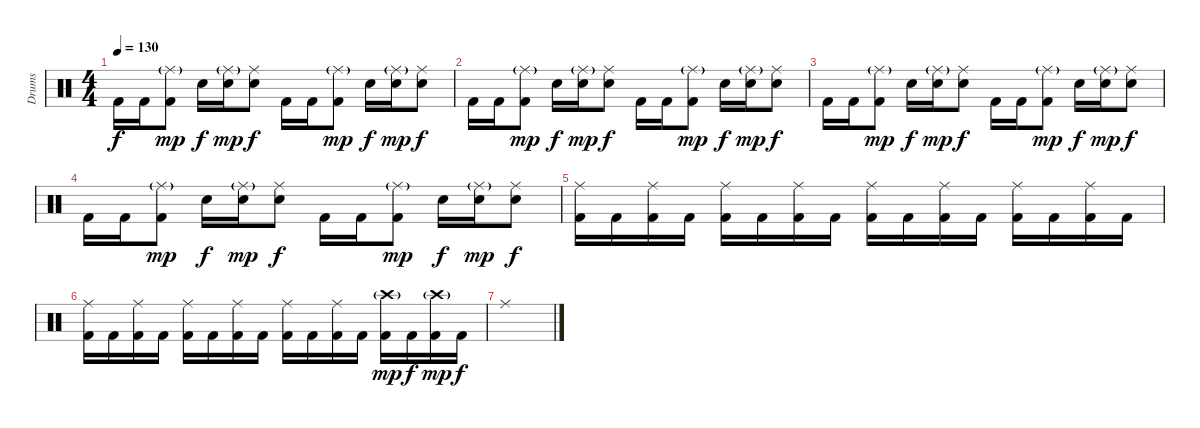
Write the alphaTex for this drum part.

\track ("Drums" "Drums") {instrument percussion}
\staff {score}
\articulation defaults
\ts (4 4)
\tempo 130
\clef neutral
\ks c "Kick (hit) 2".16{dy f} "Kick (hit) 2".16
("Ride (middle)"{g} "Kick (hit) 2").8{dy mp} "Snare (hit) 2".16{dy f} ("Ride (middle)"{g} "Snare (hit) 2").16{dy mp} ("Ride (middle)" "Snare (hit) 2").8{dy f} "Kick (hit) 2".16 "Kick (hit) 2".16 ("Ride (middle)"{g} "Kick (hit) 2").8{dy mp} "Snare (hit) 2".16{dy f} ("Ride (middle)"{g} "Snare (hit) 2").16{dy mp} ("Ride (middle)" "Snare (hit) 2").8{dy f} |
"Kick (hit) 2".16 "Kick (hit) 2".16 ("Ride (middle)"{g} "Kick (hit) 2").8{dy mp} "Snare (hit) 2".16{dy f} ("Ride (middle)"{g} "Snare (hit) 2").16{dy mp} ("Ride (middle)" "Snare (hit) 2").8{dy f} "Kick (hit) 2".16 "Kick (hit) 2".16 ("Ride (middle)"{g} "Kick (hit) 2").8{dy mp} "Snare (hit) 2".16{dy f} ("Ride (middle)"{g} "Snare (hit) 2").16{dy mp} ("Ride (middle)" "Snare (hit) 2").8{dy f} |
"Kick (hit) 2".16 "Kick (hit) 2".16 ("Ride (middle)"{g} "Kick (hit) 2").8{dy mp} "Snare (hit) 2".16{dy f} ("Ride (middle)"{g} "Snare (hit) 2").16{dy mp} ("Ride (middle)" "Snare (hit) 2").8{dy f} "Kick (hit) 2".16 "Kick (hit) 2".16 ("Ride (middle)"{g} "Kick (hit) 2").8{dy mp} "Snare (hit) 2".16{dy f} ("Ride (middle)"{g} "Snare (hit) 2").16{dy mp} ("Ride (middle)" "Snare (hit) 2").8{dy f} |
"Kick (hit) 2".16 "Kick (hit) 2".16 ("Ride (middle)"{g} "Kick (hit) 2").8{dy mp} "Snare (hit) 2".16{dy f} ("Ride (middle)"{g} "Snare (hit) 2").16{dy mp} ("Ride (middle)" "Snare (hit) 2").8{dy f} "Kick (hit) 2".16 "Kick (hit) 2".16 ("Ride (middle)"{g} "Kick (hit) 2").8{dy mp} "Snare (hit) 2".16{dy f} ("Ride (middle)"{g} "Snare (hit) 2").16{dy mp} ("Ride (middle)" "Snare (hit) 2").8{dy f} |
("Ride (middle)" "Kick (hit) 2").16 "Kick (hit) 2".16 ("Ride (middle)" "Kick (hit) 2").16 "Kick (hit) 2".16 ("Ride (middle)" "Kick (hit) 2").16 "Kick (hit) 2".16 ("Ride (middle)" "Kick (hit) 2").16 "Kick (hit) 2".16 ("Ride (middle)" "Kick (hit) 2").16 "Kick (hit) 2".16 ("Ride (middle)" "Kick (hit) 2").16 "Kick (hit) 2".16 ("Ride (middle)" "Kick (hit) 2").16 "Kick (hit) 2".16 ("Ride (middle)" "Kick (hit) 2").16 "Kick (hit) 2".16 |
("Ride (middle)" "Kick (hit) 2").16 "Kick (hit) 2".16 ("Ride (middle)" "Kick (hit) 2").16 "Kick (hit) 2".16 ("Ride (middle)" "Kick (hit) 2").16 "Kick (hit) 2".16 ("Ride (middle)" "Kick (hit) 2").16 "Kick (hit) 2".16 ("Ride (middle)" "Kick (hit) 2").16 "Kick (hit) 2".16 ("Ride (middle)" "Kick (hit) 2").16 "Kick (hit) 2".16 ("Crash high (hit)"{g} "Kick (hit) 2").16{dy mp} "Kick (hit) 2".16{dy f} ("Crash high (hit)"{g} "Kick (hit) 2").16{dy mp} "Kick (hit) 2".16{dy f} |
"Ride (middle)".1
